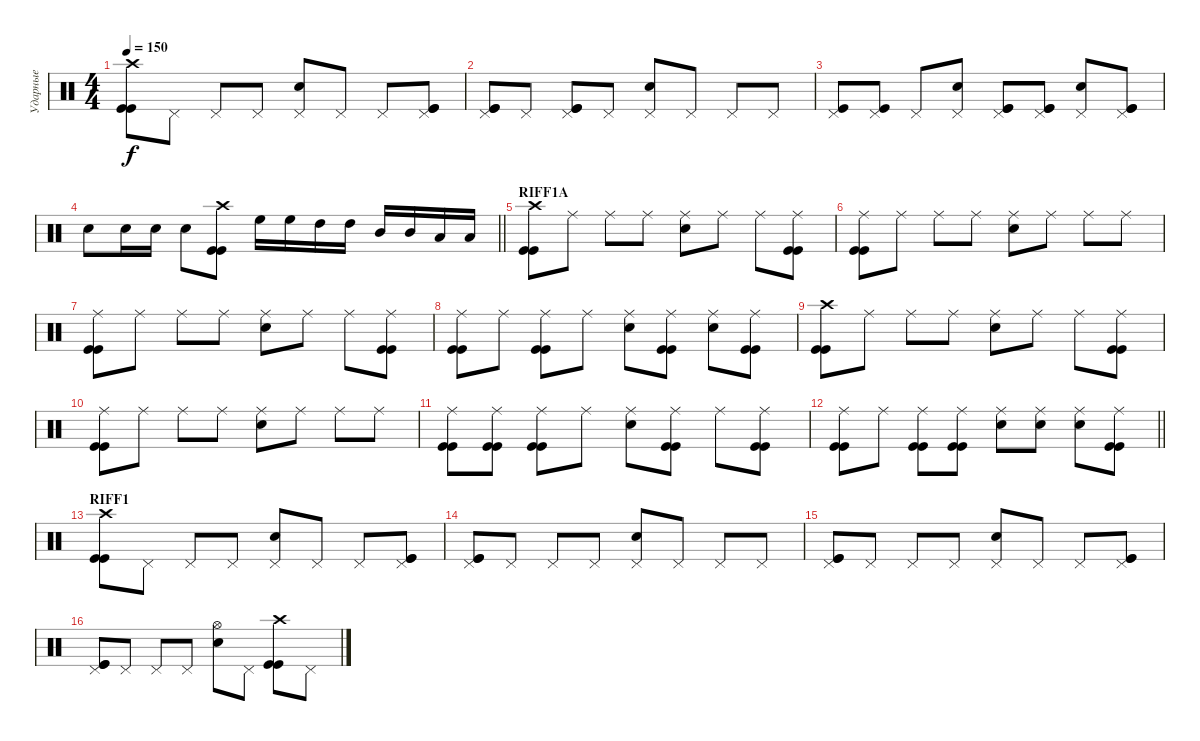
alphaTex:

\track ("Ударные" "Ударные") {instrument percussion}
\staff {score}
\articulation defaults
\ts (4 4)
\tempo 150
\clef neutral
\ks c
("Crash high (hit)" "Kick (hit)" "Kick (hit)").8{dy f} "Pedal Hi-Hat (hit)".8 "Pedal Hi-Hat (hit)".8 "Pedal Hi-Hat (hit)".8 ("Pedal Hi-Hat (hit)" "Electric Snare (hit)").8 "Pedal Hi-Hat (hit)".8 "Pedal Hi-Hat (hit)".8 ("Pedal Hi-Hat (hit)" "Kick (hit)" "Kick (hit)").8 |
("Pedal Hi-Hat (hit)" "Kick (hit)" "Kick (hit)").8 "Pedal Hi-Hat (hit)".8 ("Pedal Hi-Hat (hit)" "Kick (hit)" "Kick (hit)").8 "Pedal Hi-Hat (hit)".8 ("Pedal Hi-Hat (hit)" "Electric Snare (hit)").8 "Pedal Hi-Hat (hit)".8 "Pedal Hi-Hat (hit)".8 "Pedal Hi-Hat (hit)".8 |
("Pedal Hi-Hat (hit)" "Kick (hit)").8 ("Pedal Hi-Hat (hit)" "Kick (hit)").8 "Pedal Hi-Hat (hit)".8 ("Pedal Hi-Hat (hit)" "Electric Snare (hit)").8 ("Pedal Hi-Hat (hit)" "Kick (hit)" "Kick (hit)").8 ("Pedal Hi-Hat (hit)" "Kick (hit)" "Kick (hit)").8 ("Pedal Hi-Hat (hit)" "Electric Snare (hit)").8 ("Pedal Hi-Hat (hit)" "Kick (hit)" "Kick (hit)").8 |
\barLineRight lightlight "Electric Snare (hit)".8 "Electric Snare (hit)".16 "Electric Snare (hit)".16 "Electric Snare (hit)".8
("Crash high (hit)" "Kick (hit)" "Kick (hit)").8 "High Floor Tom (hit)".16 "High Floor Tom (hit)".16 "High Tom (hit)".16 "High Tom (hit)".16 "Mid Tom (hit)".16 "Mid Tom (hit)".16 "Low Tom (hit)".16 "Low Tom (hit)".16 |
\section ("" "RIFF1A")
("Crash high (hit)" "Kick (hit)" "Kick (hit)").8 "Ride (middle)".8 "Ride (middle)".8 "Ride (middle)".8 ("Ride (middle)" "Electric Snare (hit)").8 "Ride (middle)".8 "Ride (middle)".8 ("Ride (middle)" "Kick (hit)" "Kick (hit)").8 |
("Ride (middle)" "Kick (hit)" "Kick (hit)").8 "Ride (middle)".8 "Ride (middle)".8 "Ride (middle)".8 ("Ride (middle)" "Electric Snare (hit)").8 "Ride (middle)".8 "Ride (middle)".8 "Ride (middle)".8 |
("Ride (middle)" "Kick (hit)" "Kick (hit)").8 "Ride (middle)".8 "Ride (middle)".8 "Ride (middle)".8 ("Ride (middle)" "Electric Snare (hit)").8 "Ride (middle)".8 "Ride (middle)".8 ("Ride (middle)" "Kick (hit)" "Kick (hit)").8 |
("Ride (middle)" "Kick (hit)" "Kick (hit)").8 "Ride (middle)".8 ("Ride (middle)" "Kick (hit)" "Kick (hit)").8 "Ride (middle)".8 ("Ride (middle)" "Electric Snare (hit)").8 ("Ride (middle)" "Kick (hit)" "Kick (hit)").8 ("Ride (middle)" "Electric Snare (hit)").8 ("Ride (middle)" "Kick (hit)" "Kick (hit)").8 |
("Crash high (hit)" "Kick (hit)" "Kick (hit)").8 "Ride (middle)".8 "Ride (middle)".8 "Ride (middle)".8 ("Ride (middle)" "Electric Snare (hit)").8 "Ride (middle)".8 "Ride (middle)".8 ("Ride (middle)" "Kick (hit)" "Kick (hit)").8 |
("Ride (middle)" "Kick (hit)" "Kick (hit)").8 "Ride (middle)".8 "Ride (middle)".8 "Ride (middle)".8 ("Ride (middle)" "Electric Snare (hit)").8 "Ride (middle)".8 "Ride (middle)".8 "Ride (middle)".8 |
("Ride (middle)" "Kick (hit)" "Kick (hit)").8 ("Ride (middle)" "Kick (hit)" "Kick (hit)").8 ("Ride (middle)" "Kick (hit)" "Kick (hit)").8 "Ride (middle)".8 ("Ride (middle)" "Electric Snare (hit)").8 ("Ride (middle)" "Kick (hit)" "Kick (hit)").8 "Ride (middle)".8 ("Ride (middle)" "Kick (hit)" "Kick (hit)").8 |
\barLineRight lightlight
("Ride (middle)" "Kick (hit)" "Kick (hit)").8 "Ride (middle)".8 ("Ride (middle)" "Kick (hit)" "Kick (hit)").8 ("Ride (middle)" "Kick (hit)" "Kick (hit)").8 ("Ride (middle)" "Electric Snare (hit)").8 ("Ride (middle)" "Electric Snare (hit)").8 ("Ride (middle)" "Electric Snare (hit)").8 ("Ride (middle)" "Kick (hit)" "Kick (hit)").8 |
\section ("" "RIFF1")
("Crash high (hit)" "Kick (hit)" "Kick (hit)").8 "Pedal Hi-Hat (hit)".8 "Pedal Hi-Hat (hit)".8 "Pedal Hi-Hat (hit)".8 ("Pedal Hi-Hat (hit)" "Electric Snare (hit)").8 "Pedal Hi-Hat (hit)".8 "Pedal Hi-Hat (hit)".8 ("Pedal Hi-Hat (hit)" "Kick (hit)" "Kick (hit)").8 |
("Pedal Hi-Hat (hit)" "Kick (hit)" "Kick (hit)").8 "Pedal Hi-Hat (hit)".8 "Pedal Hi-Hat (hit)".8 "Pedal Hi-Hat (hit)".8 ("Pedal Hi-Hat (hit)" "Electric Snare (hit)").8 "Pedal Hi-Hat (hit)".8 "Pedal Hi-Hat (hit)".8 "Pedal Hi-Hat (hit)".8 |
("Pedal Hi-Hat (hit)" "Kick (hit)" "Kick (hit)").8 "Pedal Hi-Hat (hit)".8 "Pedal Hi-Hat (hit)".8 "Pedal Hi-Hat (hit)".8 ("Pedal Hi-Hat (hit)" "Electric Snare (hit)").8 "Pedal Hi-Hat (hit)".8 "Pedal Hi-Hat (hit)".8 ("Pedal Hi-Hat (hit)" "Kick (hit)" "Kick (hit)").8 |
("Pedal Hi-Hat (hit)" "Kick (hit)" "Kick (hit)").8 "Pedal Hi-Hat (hit)".8 "Pedal Hi-Hat (hit)".8 "Pedal Hi-Hat (hit)".8 ("Hi-Hat (open)" "Electric Snare (hit)").8 "Pedal Hi-Hat (hit)".8 ("Crash high (hit)" "Kick (hit)" "Kick (hit)").8 "Pedal Hi-Hat (hit)".8
